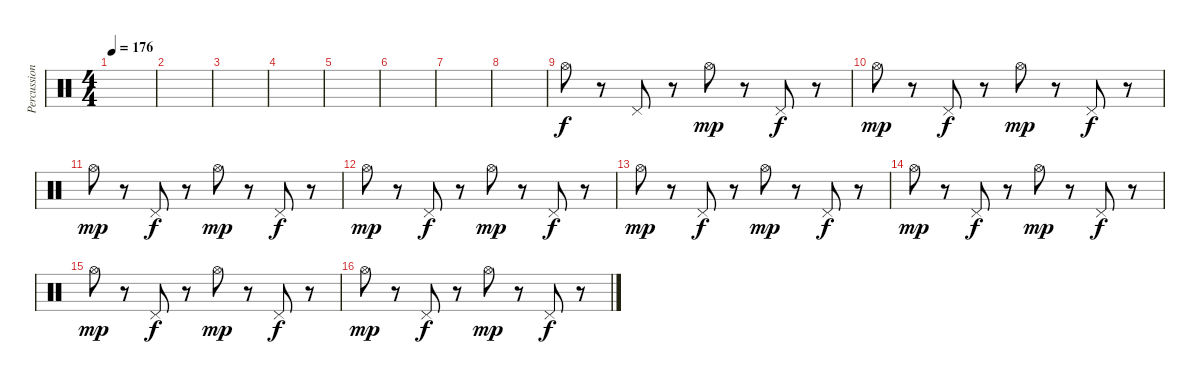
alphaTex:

\track ("Percussions" "Percussion") {instrument percussion}
\staff {score}
\articulation defaults
\ts (4 4)
\tempo 176
\clef neutral
\ks c
|
|
|
|
|
|
|
|
"Hi-Hat (open)".8 r.8 "Pedal Hi-Hat (hit)".8{dy f} r.8 "Hi-Hat (open)".8{dy mp} r.8 "Pedal Hi-Hat (hit)".8{dy f} r.8 |
"Hi-Hat (open)".8{dy mp} r.8 "Pedal Hi-Hat (hit)".8{dy f} r.8 "Hi-Hat (open)".8{dy mp} r.8 "Pedal Hi-Hat (hit)".8{dy f} r.8 |
"Hi-Hat (open)".8{dy mp} r.8 "Pedal Hi-Hat (hit)".8{dy f} r.8 "Hi-Hat (open)".8{dy mp} r.8 "Pedal Hi-Hat (hit)".8{dy f} r.8 |
"Hi-Hat (open)".8{dy mp} r.8 "Pedal Hi-Hat (hit)".8{dy f} r.8 "Hi-Hat (open)".8{dy mp} r.8 "Pedal Hi-Hat (hit)".8{dy f} r.8 |
"Hi-Hat (open)".8{dy mp} r.8 "Pedal Hi-Hat (hit)".8{dy f} r.8 "Hi-Hat (open)".8{dy mp} r.8 "Pedal Hi-Hat (hit)".8{dy f} r.8 |
"Hi-Hat (open)".8{dy mp} r.8 "Pedal Hi-Hat (hit)".8{dy f} r.8 "Hi-Hat (open)".8{dy mp} r.8 "Pedal Hi-Hat (hit)".8{dy f} r.8 |
"Hi-Hat (open)".8{dy mp} r.8 "Pedal Hi-Hat (hit)".8{dy f} r.8 "Hi-Hat (open)".8{dy mp} r.8 "Pedal Hi-Hat (hit)".8{dy f} r.8 |
"Hi-Hat (open)".8{dy mp} r.8 "Pedal Hi-Hat (hit)".8{dy f} r.8 "Hi-Hat (open)".8{dy mp} r.8 "Pedal Hi-Hat (hit)".8{dy f} r.8
